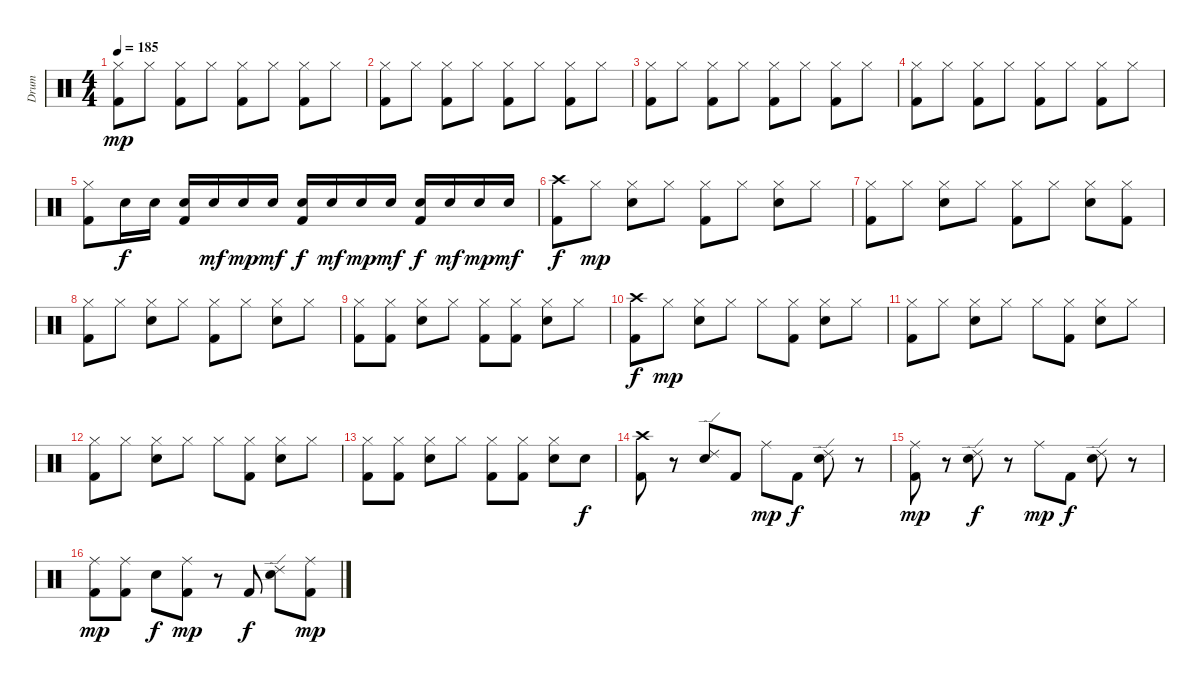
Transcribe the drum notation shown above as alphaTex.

\track ("Drum" "Drum") {instrument percussion}
\staff {score}
\articulation defaults
\ts (4 4)
\tempo 185
\clef neutral
\ks c
("Hi-Hat (closed)" "Kick (hit) 2").8{dy mp} "Hi-Hat (closed)".8 ("Hi-Hat (closed)" "Kick (hit) 2").8 "Hi-Hat (closed)".8 ("Hi-Hat (closed)" "Kick (hit) 2").8 "Hi-Hat (closed)".8 ("Hi-Hat (closed)" "Kick (hit) 2").8 "Hi-Hat (closed)".8 |
("Hi-Hat (closed)" "Kick (hit) 2").8 "Hi-Hat (closed)".8 ("Hi-Hat (closed)" "Kick (hit) 2").8 "Hi-Hat (closed)".8 ("Hi-Hat (closed)" "Kick (hit) 2").8 "Hi-Hat (closed)".8 ("Hi-Hat (closed)" "Kick (hit) 2").8 "Hi-Hat (closed)".8 |
("Hi-Hat (closed)" "Kick (hit) 2").8 "Hi-Hat (closed)".8 ("Hi-Hat (closed)" "Kick (hit) 2").8 "Hi-Hat (closed)".8 ("Hi-Hat (closed)" "Kick (hit) 2").8 "Hi-Hat (closed)".8 ("Hi-Hat (closed)" "Kick (hit) 2").8 "Hi-Hat (closed)".8 |
("Hi-Hat (closed)" "Kick (hit) 2").8 "Hi-Hat (closed)".8 ("Hi-Hat (closed)" "Kick (hit) 2").8 "Hi-Hat (closed)".8 ("Hi-Hat (closed)" "Kick (hit) 2").8 "Hi-Hat (closed)".8 ("Hi-Hat (closed)" "Kick (hit) 2").8 "Hi-Hat (closed)".8 |
("Hi-Hat (closed)" "Kick (hit) 2").8 "Electric Snare (hit)".16{dy f} "Electric Snare (hit)".16 ("Electric Snare (hit)" "Kick (hit) 2").16 "Electric Snare (hit)".16{dy mf} "Electric Snare (hit)".16{dy mp} "Electric Snare (hit)".16{dy mf} ("Electric Snare (hit)" "Kick (hit) 2").16{dy f} "Electric Snare (hit)".16{dy mf} "Electric Snare (hit)".16{dy mp} "Electric Snare (hit)".16{dy mf} ("Electric Snare (hit)" "Kick (hit) 2").16{dy f} "Electric Snare (hit)".16{dy mf} "Electric Snare (hit)".16{dy mp} "Electric Snare (hit)".16{dy mf} |
("Crash high (hit)" "Kick (hit) 2").8{dy f} "Hi-Hat (closed)".8{dy mp} ("Hi-Hat (closed)" "Electric Snare (hit)").8 "Hi-Hat (closed)".8 ("Hi-Hat (closed)" "Kick (hit) 2").8 "Hi-Hat (closed)".8 ("Hi-Hat (closed)" "Electric Snare (hit)").8 "Hi-Hat (closed)".8 |
("Kick (hit) 2" "Hi-Hat (closed)").8 "Hi-Hat (closed)".8 ("Hi-Hat (closed)" "Electric Snare (hit)").8 "Hi-Hat (closed)".8 ("Kick (hit) 2" "Hi-Hat (closed)").8 "Hi-Hat (closed)".8 ("Hi-Hat (closed)" "Electric Snare (hit)").8 ("Hi-Hat (closed)" "Kick (hit) 2").8 |
("Hi-Hat (closed)" "Kick (hit) 2").8 "Hi-Hat (closed)".8 ("Hi-Hat (closed)" "Electric Snare (hit)").8 "Hi-Hat (closed)".8 ("Hi-Hat (closed)" "Kick (hit) 2").8 "Hi-Hat (closed)".8 ("Hi-Hat (closed)" "Electric Snare (hit)").8 "Hi-Hat (closed)".8 |
("Hi-Hat (closed)" "Kick (hit) 2").8 ("Hi-Hat (closed)" "Kick (hit) 2").8 ("Hi-Hat (closed)" "Electric Snare (hit)").8 "Hi-Hat (closed)".8 ("Hi-Hat (closed)" "Kick (hit) 2").8 ("Hi-Hat (closed)" "Kick (hit) 2").8 ("Hi-Hat (closed)" "Electric Snare (hit)").8 "Hi-Hat (closed)".8 |
("Crash high (hit)" "Kick (hit) 2").8{dy f} "Hi-Hat (closed)".8{dy mp} ("Hi-Hat (closed)" "Electric Snare (hit)").8 "Hi-Hat (closed)".8 "Hi-Hat (closed)".8 ("Hi-Hat (closed)" "Kick (hit) 2").8 ("Hi-Hat (closed)" "Electric Snare (hit)").8 "Hi-Hat (closed)".8 |
("Kick (hit) 2" "Hi-Hat (closed)").8 "Hi-Hat (closed)".8 ("Hi-Hat (closed)" "Electric Snare (hit)").8 "Hi-Hat (closed)".8 "Hi-Hat (closed)".8 ("Hi-Hat (closed)" "Kick (hit) 2").8 ("Hi-Hat (closed)" "Electric Snare (hit)").8 "Hi-Hat (closed)".8 |
("Kick (hit) 2" "Hi-Hat (closed)").8 "Hi-Hat (closed)".8 ("Hi-Hat (closed)" "Electric Snare (hit)").8 "Hi-Hat (closed)".8 "Hi-Hat (closed)".8 ("Hi-Hat (closed)" "Kick (hit) 2").8 ("Hi-Hat (closed)" "Electric Snare (hit)").8 "Hi-Hat (closed)".8 |
("Hi-Hat (closed)" "Kick (hit) 2").8 ("Hi-Hat (closed)" "Kick (hit) 2").8 ("Hi-Hat (closed)" "Electric Snare (hit)").8 "Hi-Hat (closed)".8 ("Hi-Hat (closed)" "Kick (hit) 2").8 ("Hi-Hat (closed)" "Kick (hit) 2").8 ("Hi-Hat (closed)" "Electric Snare (hit)").8 "Electric Snare (hit)".8{dy f} |
("Crash high (hit)" "Kick (hit) 2").8 r.8 ("Ride (edge) 2" "Electric Snare (hit)").8 "Kick (hit) 2".8 "Ride (middle)".8{dy mp} "Kick (hit) 2".8{dy f} ("Ride (edge) 2" "Electric Snare (hit)").8 r.8 |
("Ride (middle)" "Kick (hit) 2").8{dy mp} r.8 ("Ride (edge) 2" "Electric Snare (hit)").8{dy f} r.8 "Ride (middle)".8{dy mp} "Kick (hit) 2".8{dy f} ("Ride (edge) 2" "Electric Snare (hit)").8 r.8 |
("Ride (middle)" "Kick (hit) 2").8{dy mp} ("Ride (middle)" "Kick (hit) 2").8 "Electric Snare (hit)".8{dy f} ("Ride (middle)" "Kick (hit) 2").8{dy mp} r.8 "Kick (hit) 2".8{dy f} ("Ride (edge) 2" "Electric Snare (hit)").8 ("Kick (hit) 2" "Ride (middle)").8{dy mp}
